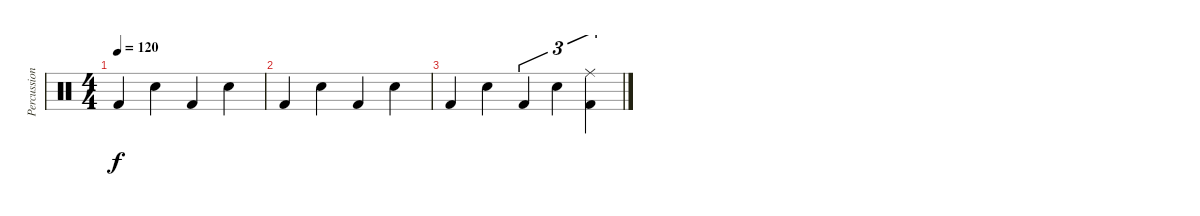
\track ("Percussion" "Percussion") {instrument percussion}
\staff {score}
\articulation defaults
\ts (4 4)
\tempo 120
\clef neutral
\ks c "Kick (hit) 2".4{dy f} "Snare (hit) 2".4 "Kick (hit) 2".4 "Snare (hit) 2".4
|
"Kick (hit) 2".4 "Snare (hit) 2".4 "Kick (hit) 2".4 "Snare (hit) 2".4 |
"Kick (hit) 2".4 "Snare (hit) 2".4 "Kick (hit) 2".4{tu (3 2)} "Snare (hit) 2".4{tu (3 2)} ("Ride (middle)" "Kick (hit) 2").4{tu (3 2)}
